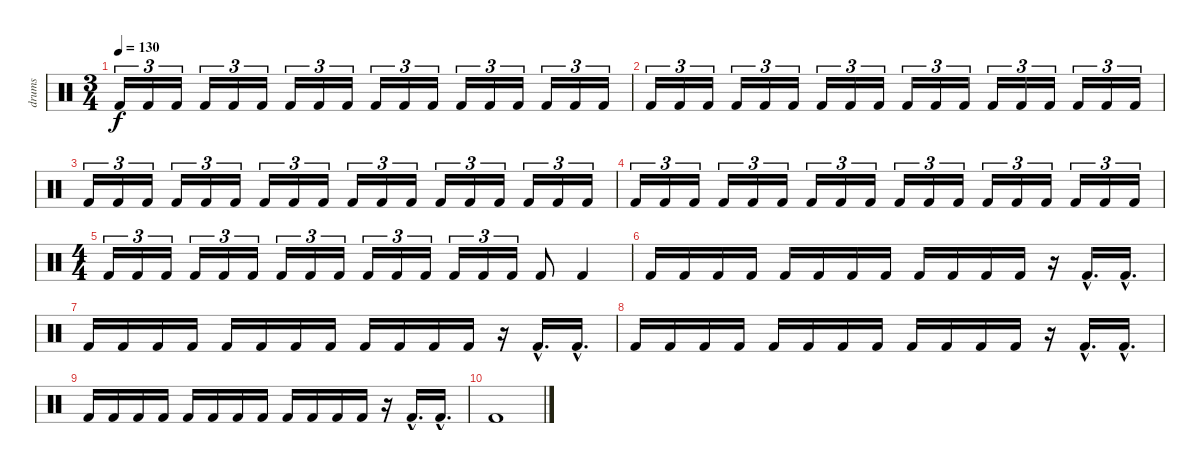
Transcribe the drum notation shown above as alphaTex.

\track ("drums" "drums") {instrument percussion}
\staff {score}
\articulation defaults
\ts (3 4)
\tempo 130
\clef neutral
\ks c "Kick (hit) 2".16{tu (3 2) dy f} "Kick (hit) 2".16{tu (3 2)} "Kick (hit) 2".16{tu (3 2)} "Kick (hit) 2".16{tu (3 2)} "Kick (hit) 2".16{tu (3 2)} "Kick (hit) 2".16{tu (3 2)} "Kick (hit) 2".16{tu (3 2)} "Kick (hit) 2".16{tu (3 2)} "Kick (hit) 2".16{tu (3 2)} "Kick (hit) 2".16{tu (3 2)} "Kick (hit) 2".16{tu (3 2)} "Kick (hit) 2".16{tu (3 2)} "Kick (hit) 2".16{tu (3 2)} "Kick (hit) 2".16{tu (3 2)} "Kick (hit) 2".16{tu (3 2)} "Kick (hit) 2".16{tu (3 2)} "Kick (hit) 2".16{tu (3 2)} "Kick (hit) 2".16{tu (3 2)}
|
"Kick (hit) 2".16{tu (3 2)} "Kick (hit) 2".16{tu (3 2)} "Kick (hit) 2".16{tu (3 2)} "Kick (hit) 2".16{tu (3 2)} "Kick (hit) 2".16{tu (3 2)} "Kick (hit) 2".16{tu (3 2)} "Kick (hit) 2".16{tu (3 2)} "Kick (hit) 2".16{tu (3 2)} "Kick (hit) 2".16{tu (3 2)} "Kick (hit) 2".16{tu (3 2)} "Kick (hit) 2".16{tu (3 2)} "Kick (hit) 2".16{tu (3 2)} "Kick (hit) 2".16{tu (3 2)} "Kick (hit) 2".16{tu (3 2)} "Kick (hit) 2".16{tu (3 2)} "Kick (hit) 2".16{tu (3 2)} "Kick (hit) 2".16{tu (3 2)} "Kick (hit) 2".16{tu (3 2)} |
"Kick (hit) 2".16{tu (3 2)} "Kick (hit) 2".16{tu (3 2)} "Kick (hit) 2".16{tu (3 2)} "Kick (hit) 2".16{tu (3 2)} "Kick (hit) 2".16{tu (3 2)} "Kick (hit) 2".16{tu (3 2)} "Kick (hit) 2".16{tu (3 2)} "Kick (hit) 2".16{tu (3 2)} "Kick (hit) 2".16{tu (3 2)} "Kick (hit) 2".16{tu (3 2)} "Kick (hit) 2".16{tu (3 2)} "Kick (hit) 2".16{tu (3 2)} "Kick (hit) 2".16{tu (3 2)} "Kick (hit) 2".16{tu (3 2)} "Kick (hit) 2".16{tu (3 2)} "Kick (hit) 2".16{tu (3 2)} "Kick (hit) 2".16{tu (3 2)} "Kick (hit) 2".16{tu (3 2)} |
"Kick (hit) 2".16{tu (3 2)} "Kick (hit) 2".16{tu (3 2)} "Kick (hit) 2".16{tu (3 2)} "Kick (hit) 2".16{tu (3 2)} "Kick (hit) 2".16{tu (3 2)} "Kick (hit) 2".16{tu (3 2)} "Kick (hit) 2".16{tu (3 2)} "Kick (hit) 2".16{tu (3 2)} "Kick (hit) 2".16{tu (3 2)} "Kick (hit) 2".16{tu (3 2)} "Kick (hit) 2".16{tu (3 2)} "Kick (hit) 2".16{tu (3 2)} "Kick (hit) 2".16{tu (3 2)} "Kick (hit) 2".16{tu (3 2)} "Kick (hit) 2".16{tu (3 2)} "Kick (hit) 2".16{tu (3 2)} "Kick (hit) 2".16{tu (3 2)} "Kick (hit) 2".16{tu (3 2)} |
\ts (4 4)
"Kick (hit) 2".16{tu (3 2)} "Kick (hit) 2".16{tu (3 2)} "Kick (hit) 2".16{tu (3 2)} "Kick (hit) 2".16{tu (3 2)} "Kick (hit) 2".16{tu (3 2)} "Kick (hit) 2".16{tu (3 2)} "Kick (hit) 2".16{tu (3 2)} "Kick (hit) 2".16{tu (3 2)} "Kick (hit) 2".16{tu (3 2)} "Kick (hit) 2".16{tu (3 2)} "Kick (hit) 2".16{tu (3 2)} "Kick (hit) 2".16{tu (3 2)} "Kick (hit) 2".16{tu (3 2)} "Kick (hit) 2".16{tu (3 2)} "Kick (hit) 2".16{tu (3 2)} "Kick (hit) 2".8 "Kick (hit) 2".4 |
"Kick (hit) 2".16 "Kick (hit) 2".16 "Kick (hit) 2".16 "Kick (hit) 2".16 "Kick (hit) 2".16 "Kick (hit) 2".16 "Kick (hit) 2".16 "Kick (hit) 2".16 "Kick (hit) 2".16 "Kick (hit) 2".16 "Kick (hit) 2".16 "Kick (hit) 2".16 r.16 "Kick (hit) 2"{hac}.16{d} "Kick (hit) 2"{hac}.16{d} |
"Kick (hit) 2".16 "Kick (hit) 2".16 "Kick (hit) 2".16 "Kick (hit) 2".16 "Kick (hit) 2".16 "Kick (hit) 2".16 "Kick (hit) 2".16 "Kick (hit) 2".16 "Kick (hit) 2".16 "Kick (hit) 2".16 "Kick (hit) 2".16 "Kick (hit) 2".16 r.16 "Kick (hit) 2"{hac}.16{d} "Kick (hit) 2"{hac}.16{d} |
"Kick (hit) 2".16 "Kick (hit) 2".16 "Kick (hit) 2".16 "Kick (hit) 2".16 "Kick (hit) 2".16 "Kick (hit) 2".16 "Kick (hit) 2".16 "Kick (hit) 2".16 "Kick (hit) 2".16 "Kick (hit) 2".16 "Kick (hit) 2".16 "Kick (hit) 2".16 r.16 "Kick (hit) 2"{hac}.16{d} "Kick (hit) 2"{hac}.16{d} |
"Kick (hit) 2".16 "Kick (hit) 2".16 "Kick (hit) 2".16 "Kick (hit) 2".16 "Kick (hit) 2".16 "Kick (hit) 2".16 "Kick (hit) 2".16 "Kick (hit) 2".16 "Kick (hit) 2".16 "Kick (hit) 2".16 "Kick (hit) 2".16 "Kick (hit) 2".16 r.16 "Kick (hit) 2"{hac}.16{d} "Kick (hit) 2"{hac}.16{d} |
"Kick (hit) 2".1
